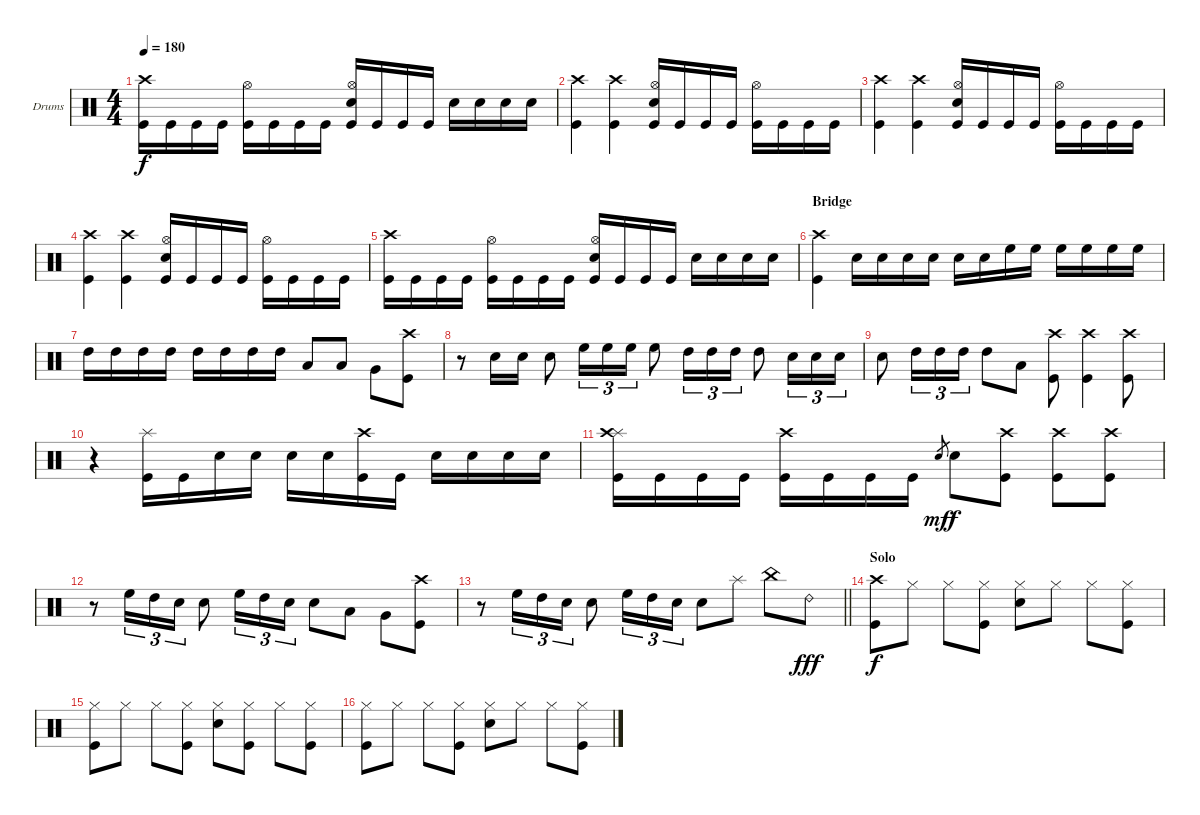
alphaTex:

\bracketExtendMode groupsimilarinstruments
\firstSystemTrackNameOrientation horizontal
\otherSystemsTrackNameOrientation horizontal
\track ("Drumkit" "Drums") {instrument percussion}
\staff {score}
\articulation defaults
\ts (4 4)
\tempo 180
\clef neutral
\ks c
("Crash high (hit)" "Kick (hit)").16{dy f} "Kick (hit)".16 "Kick (hit)".16 "Kick (hit)".16 ("Hi-Hat (open)" "Kick (hit)").16 "Kick (hit)".16 "Kick (hit)".16 "Kick (hit)".16 ("Hi-Hat (open)" "Snare (hit) 2" "Kick (hit)").16 "Kick (hit)".16 "Kick (hit)".16 "Kick (hit)".16 "Snare (hit) 2".16 "Snare (hit) 2".16 "Snare (hit) 2".16 "Snare (hit) 2".16 |
("Crash high (hit)" "Kick (hit)").4 ("Crash high (hit)" "Kick (hit)").4 ("Hi-Hat (open)" "Snare (hit) 2" "Kick (hit)").16 "Kick (hit)".16 "Kick (hit)".16 "Kick (hit)".16 ("Hi-Hat (open)" "Kick (hit)").16 "Kick (hit)".16 "Kick (hit)".16 "Kick (hit)".16 |
("Crash high (hit)" "Kick (hit)").4 ("Crash high (hit)" "Kick (hit)").4 ("Hi-Hat (open)" "Snare (hit) 2" "Kick (hit)").16 "Kick (hit)".16 "Kick (hit)".16 "Kick (hit)".16 ("Hi-Hat (open)" "Kick (hit)").16 "Kick (hit)".16 "Kick (hit)".16 "Kick (hit)".16 |
("Crash high (hit)" "Kick (hit)").4 ("Crash high (hit)" "Kick (hit)").4 ("Hi-Hat (open)" "Snare (hit) 2" "Kick (hit)").16 "Kick (hit)".16 "Kick (hit)".16 "Kick (hit)".16 ("Hi-Hat (open)" "Kick (hit)").16 "Kick (hit)".16 "Kick (hit)".16 "Kick (hit)".16 |
("Crash high (hit)" "Kick (hit)").16 "Kick (hit)".16 "Kick (hit)".16 "Kick (hit)".16 ("Hi-Hat (open)" "Kick (hit)").16 "Kick (hit)".16 "Kick (hit)".16 "Kick (hit)".16 ("Hi-Hat (open)" "Snare (hit) 2" "Kick (hit)").16 "Kick (hit)".16 "Kick (hit)".16 "Kick (hit)".16 "Snare (hit) 2".16 "Snare (hit) 2".16 "Snare (hit) 2".16 "Snare (hit) 2".16 |
\section ("" "Bridge")
("Crash high (hit)" "Kick (hit)").4 "Snare (hit) 2".16 "Snare (hit) 2".16 "Snare (hit) 2".16 "Snare (hit) 2".16 "Snare (hit) 2".16 "Snare (hit) 2".16 "High Floor Tom (hit)".16 "High Floor Tom (hit)".16 "High Floor Tom (hit)".16 "High Floor Tom (hit)".16 "High Floor Tom (hit)".16 "High Floor Tom (hit)".16 |
"High Tom (hit)".16 "High Tom (hit)".16 "High Tom (hit)".16 "High Tom (hit)".16 "High Tom (hit)".16 "High Tom (hit)".16 "High Tom (hit)".16 "High Tom (hit)".16 "Low Tom (hit)".8 "Low Tom (hit)".8 "Very Low Tom (hit)".8 ("Crash high (hit)" "Kick (hit)").8 |
r.8 "Snare (hit) 2".16 "Snare (hit) 2".16 "Snare (hit) 2".8 "High Floor Tom (hit)".16{tu (3 2)} "High Floor Tom (hit)".16{tu (3 2)} "High Floor Tom (hit)".16{tu (3 2)} "High Floor Tom (hit)".8 "High Tom (hit)".16{tu (3 2)} "High Tom (hit)".16{tu (3 2)} "High Tom (hit)".16{tu (3 2)} "High Tom (hit)".8 "Snare (hit) 2".16{tu (3 2)} "Snare (hit) 2".16{tu (3 2)} "Snare (hit) 2".16{tu (3 2)} |
"Snare (hit) 2".8 "High Tom (hit)".16{tu (3 2)} "High Tom (hit)".16{tu (3 2)} "High Tom (hit)".16{tu (3 2)} "High Tom (hit)".8 "Low Tom (hit)".8 ("Crash high (hit)" "Kick (hit)").8 ("Crash high (hit)" "Kick (hit)").4 ("Crash high (hit)" "Kick (hit)").8 |
r.4 ("Splash (hit)" "Kick (hit)").16 "Kick (hit)".16 "Snare (hit) 2".16 "Snare (hit) 2".16 "Snare (hit) 2".16 "Snare (hit) 2".16 ("Crash high (hit)" "Kick (hit)").16 "Kick (hit)".16 "Snare (hit) 2".16 "Snare (hit) 2".16 "Snare (hit) 2".16 "Snare (hit) 2".16 |
("Splash (hit)" "Crash high (hit)" "Kick (hit)").16 "Kick (hit)".16 "Kick (hit)".16 "Kick (hit)".16 ("Crash high (hit)" "Kick (hit)").16 "Kick (hit)".16 "Kick (hit)".16 "Kick (hit)".16 "Snare (hit) 2".8{gr dy mf} "Snare (hit) 2".8{dy f} ("Crash high (hit)" "Kick (hit)").8 ("Crash high (hit)" "Kick (hit)").8 ("Crash high (hit)" "Kick (hit)").8 |
r.8 "High Floor Tom (hit)".16{tu (3 2)} "High Tom (hit)".16{tu (3 2)} "Snare (hit) 2".16{tu (3 2)} "Snare (hit) 2".8 "High Floor Tom (hit)".16{tu (3 2)} "High Tom (hit)".16{tu (3 2)} "Snare (hit) 2".16{tu (3 2)} "Snare (hit) 2".8 "Low Tom (hit)".8 "Very Low Tom (hit)".8 ("Crash high (hit)" "Kick (hit)").8 |
\barLineRight lightlight
r.8 "High Floor Tom (hit)".16{tu (3 2)} "High Tom (hit)".16{tu (3 2)} "Snare (hit) 2".16{tu (3 2)} "Snare (hit) 2".8 "High Floor Tom (hit)".16{tu (3 2)} "High Tom (hit)".16{tu (3 2)} "Snare (hit) 2".16{tu (3 2)} "Snare (hit) 2".8 "Splash (hit)".8 "China (hit)".8 "Ride (bell) 2".8{dy fff} |
\section ("" "Solo")
("Crash high (hit)" "Kick (hit)").8{dy f} "Hi-Hat (closed)".8 "Hi-Hat (closed)".8 ("Hi-Hat (closed)" "Kick (hit)").8 ("Hi-Hat (closed)" "Snare (hit) 2").8 "Hi-Hat (closed)".8 "Hi-Hat (closed)".8 ("Hi-Hat (closed)" "Kick (hit)").8 |
("Hi-Hat (closed)" "Kick (hit)").8 "Hi-Hat (closed)".8 "Hi-Hat (closed)".8 ("Hi-Hat (closed)" "Kick (hit)").8 ("Hi-Hat (closed)" "Snare (hit) 2").8 ("Hi-Hat (closed)" "Kick (hit)").8 "Hi-Hat (closed)".8 ("Hi-Hat (closed)" "Kick (hit)").8 |
("Hi-Hat (closed)" "Kick (hit)").8 "Hi-Hat (closed)".8 "Hi-Hat (closed)".8 ("Hi-Hat (closed)" "Kick (hit)").8 ("Hi-Hat (closed)" "Snare (hit) 2").8 "Hi-Hat (closed)".8 "Hi-Hat (closed)".8 ("Hi-Hat (closed)" "Kick (hit)").8
